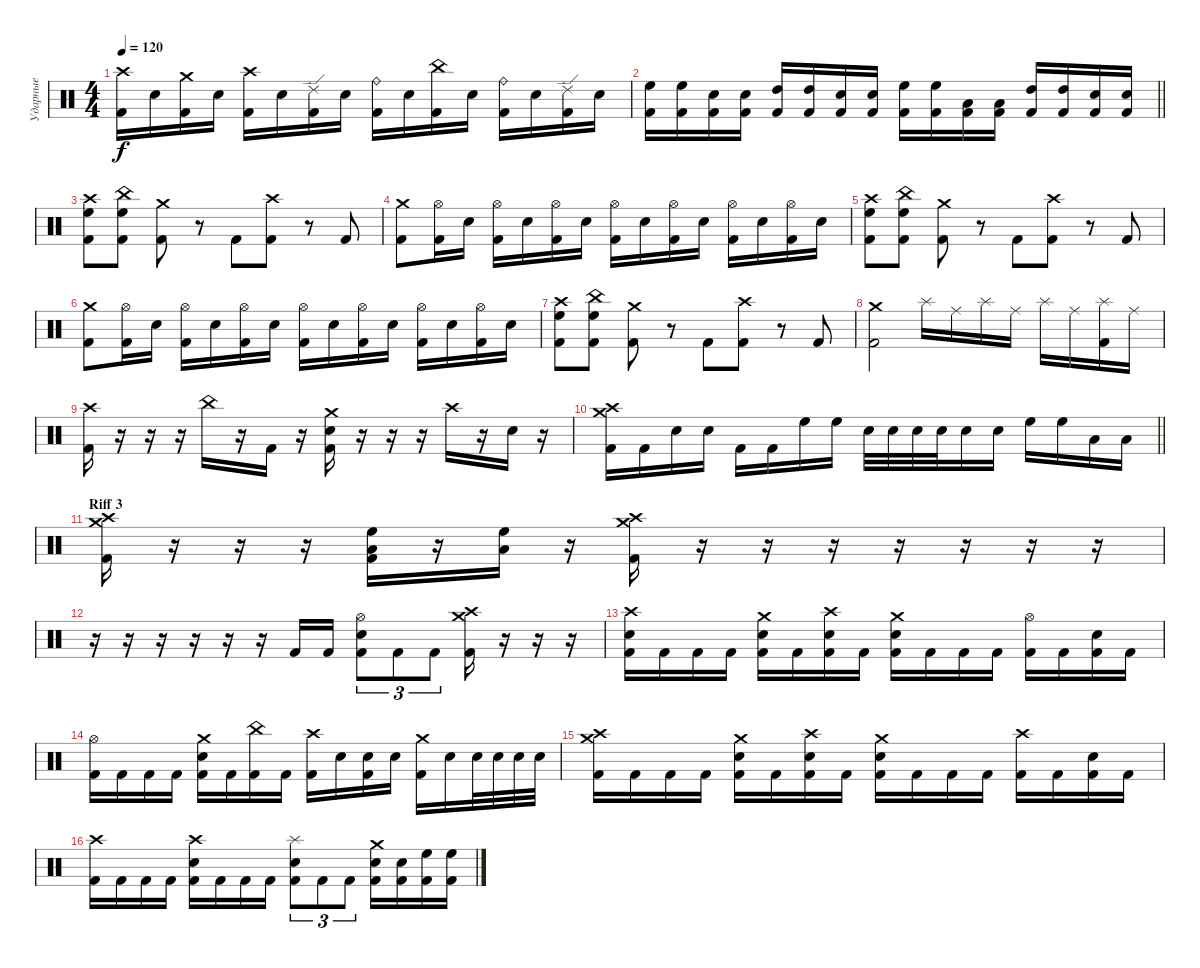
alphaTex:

\track ("Ударные" "Ударные") {instrument percussion}
\staff {score}
\articulation defaults
\ts (4 4)
\tempo 120
\clef neutral
\ks c
("Crash high (hit)" "Kick (hit) 2").16{dy f} "Electric Snare (hit)".16 ("Crash medium (hit)" "Kick (hit) 2").16 "Electric Snare (hit)".16 ("Crash high (hit)" "Kick (hit) 2").16 "Electric Snare (hit)".16 ("Ride (edge) 2" "Kick (hit) 2").16 "Electric Snare (hit)".16 ("Ride (bell)" "Kick (hit) 2").16 "Electric Snare (hit)".16 ("China (hit)" "Kick (hit) 2").16 "Electric Snare (hit)".16 ("Ride (bell)" "Kick (hit) 2").16 "Electric Snare (hit)".16 ("Ride (edge) 2" "Kick (hit) 2").16 "Electric Snare (hit)".16 |
\barLineRight lightlight
("High Floor Tom (hit)" "Kick (hit) 2").16 ("High Floor Tom (hit)" "Kick (hit) 2").16 ("Electric Snare (hit)" "Kick (hit) 2").16 ("Electric Snare (hit)" "Kick (hit) 2").16 ("High Tom (hit)" "Kick (hit) 2").16 ("High Tom (hit)" "Kick (hit) 2").16 ("Electric Snare (hit)" "Kick (hit) 2").16 ("Electric Snare (hit)" "Kick (hit) 2").16 ("High Floor Tom (hit)" "Kick (hit) 2").16 ("High Floor Tom (hit)" "Kick (hit) 2").16 ("Low Tom (hit)" "Kick (hit) 2").16 ("Low Tom (hit)" "Kick (hit) 2").16 ("High Tom (hit)" "Kick (hit) 2").16 ("High Tom (hit)" "Kick (hit) 2").16 ("Electric Snare (hit)" "Kick (hit) 2").16 ("Electric Snare (hit)" "Kick (hit) 2").16 |
("Crash high (hit)" "High Floor Tom (hit)" "Kick (hit) 2").8 ("China (hit)" "High Floor Tom (hit)" "Kick (hit) 2").8 ("Crash medium (hit)" "Kick (hit) 2").8 r.8 "Kick (hit) 2".8 ("Crash high (hit)" "Kick (hit) 2").8 r.8 "Kick (hit) 2".8 |
("Crash medium (hit)" "Kick (hit) 2").8 ("Hi-Hat (open)" "Kick (hit) 2").16 "Electric Snare (hit)".16 ("Hi-Hat (open)" "Kick (hit) 2").16 "Electric Snare (hit)".16 ("Hi-Hat (open)" "Kick (hit) 2").16 "Electric Snare (hit)".16 ("Hi-Hat (open)" "Kick (hit) 2").16 "Electric Snare (hit)".16 ("Hi-Hat (open)" "Kick (hit) 2").16 "Electric Snare (hit)".16 ("Hi-Hat (open)" "Kick (hit) 2").16 "Electric Snare (hit)".16 ("Hi-Hat (open)" "Kick (hit) 2").16 "Electric Snare (hit)".16 |
("Crash high (hit)" "High Floor Tom (hit)" "Kick (hit) 2").8 ("China (hit)" "High Floor Tom (hit)" "Kick (hit) 2").8 ("Crash medium (hit)" "Kick (hit) 2").8 r.8 "Kick (hit) 2".8 ("Crash high (hit)" "Kick (hit) 2").8 r.8 "Kick (hit) 2".8 |
("Crash medium (hit)" "Kick (hit) 2").8 ("Hi-Hat (open)" "Kick (hit) 2").16 "Electric Snare (hit)".16 ("Hi-Hat (open)" "Kick (hit) 2").16 "Electric Snare (hit)".16 ("Hi-Hat (open)" "Kick (hit) 2").16 "Electric Snare (hit)".16 ("Hi-Hat (open)" "Kick (hit) 2").16 "Electric Snare (hit)".16 ("Hi-Hat (open)" "Kick (hit) 2").16 "Electric Snare (hit)".16 ("Hi-Hat (open)" "Kick (hit) 2").16 "Electric Snare (hit)".16 ("Hi-Hat (open)" "Kick (hit) 2").16 "Electric Snare (hit)".16 |
("Crash high (hit)" "High Floor Tom (hit)" "Kick (hit) 2").8 ("China (hit)" "High Floor Tom (hit)" "Kick (hit) 2").8 ("Crash medium (hit)" "Kick (hit) 2").8 r.8 "Kick (hit) 2".8 ("Crash high (hit)" "Kick (hit) 2").8 r.8 "Kick (hit) 2".8 |
("Crash medium (hit)" "Kick (hit) 2").2 "Splash (hit)".16 "Ride (middle)".16 "Splash (hit)".16 "Ride (middle)".16 "Splash (hit)".16 "Ride (middle)".16 ("Splash (hit)" "Kick (hit) 2").16 "Ride (middle)".16 |
("Crash high (hit)" "Kick (hit) 2").16 r.16 r.16 r.16 "China (hit)".16 r.16 "Kick (hit) 2".16 r.16 ("Crash medium (hit)" "Electric Snare (hit)" "Kick (hit) 2").16 r.16 r.16 r.16 "Crash high (hit)".16 r.16 "Electric Snare (hit)".16 r.16 |
\barLineRight lightlight
("Crash medium (hit)" "Crash high (hit)" "Kick (hit) 2").16 "Kick (hit) 2".16 "Electric Snare (hit)".16 "Electric Snare (hit)".16 "Kick (hit) 2".16 "Kick (hit) 2".16 "High Floor Tom (hit)".16 "High Floor Tom (hit)".16 "Electric Snare (hit)".32 "Electric Snare (hit)".32 "Electric Snare (hit)".32 "Electric Snare (hit)".32 "Electric Snare (hit)".16 "Electric Snare (hit)".16 "High Floor Tom (hit)".16 "High Floor Tom (hit)".16 "Low Tom (hit)".16 "Low Tom (hit)".16 |
\section ("" "Riff 3")
("Crash medium (hit)" "Crash high (hit)" "Kick (hit) 2").16 r.16 r.16 r.16 ("High Floor Tom (hit)" "Low Tom (hit)" "Kick (hit) 2").16 r.16 ("High Floor Tom (hit)" "Low Tom (hit)").16 r.16 ("Crash medium (hit)" "Crash high (hit)" "Kick (hit) 2").16 r.16 r.16 r.16 r.16 r.16 r.16 r.16 |
r.16 r.16 r.16 r.16 r.16 r.16 "Kick (hit) 2".16 "Kick (hit) 2".16 ("Hi-Hat (open)" "Electric Snare (hit)" "Kick (hit) 2").8{tu (3 2)} "Kick (hit) 2".8{tu (3 2)} "Kick (hit) 2".8{tu (3 2)} ("Crash high (hit)" "Crash medium (hit)" "Kick (hit) 2").16 r.16 r.16 r.16 |
("Crash high (hit)" "Electric Snare (hit)" "Kick (hit) 2").16 "Kick (hit) 2".16 "Kick (hit) 2".16 "Kick (hit) 2".16 ("Crash medium (hit)" "Electric Snare (hit)" "Kick (hit) 2").16 "Kick (hit) 2".16 ("Crash high (hit)" "Electric Snare (hit)" "Kick (hit) 2").16 "Kick (hit) 2".16 ("Crash medium (hit)" "Electric Snare (hit)" "Kick (hit) 2").16 "Kick (hit) 2".16 "Kick (hit) 2".16 "Kick (hit) 2".16 ("Hi-Hat (open)" "Kick (hit) 2").16 "Kick (hit) 2".16 ("Electric Snare (hit)" "Kick (hit) 2").16 "Kick (hit) 2".16 |
("Hi-Hat (open)" "Kick (hit) 2").16 "Kick (hit) 2".16 "Kick (hit) 2".16 "Kick (hit) 2".16 ("Crash medium (hit)" "Electric Snare (hit)" "Kick (hit) 2").16 "Kick (hit) 2".16 ("China (hit)" "Kick (hit) 2").16 "Kick (hit) 2".16 ("Crash high (hit)" "Kick (hit) 2").16 "Electric Snare (hit)".16 ("Electric Snare (hit)" "Kick (hit) 2").16 "Electric Snare (hit)".16 ("Crash medium (hit)" "Kick (hit) 2").16 "Electric Snare (hit)".16 "Electric Snare (hit)".32 "Electric Snare (hit)".32 "Electric Snare (hit)".32 "Electric Snare (hit)".32 |
("Crash high (hit)" "Crash medium (hit)" "Kick (hit) 2").16 "Kick (hit) 2".16 "Kick (hit) 2".16 "Kick (hit) 2".16 ("Crash medium (hit)" "Electric Snare (hit)" "Kick (hit) 2").16 "Kick (hit) 2".16 ("Crash high (hit)" "Electric Snare (hit)" "Kick (hit) 2").16 "Kick (hit) 2".16 ("Crash medium (hit)" "Electric Snare (hit)" "Kick (hit) 2").16 "Kick (hit) 2".16 "Kick (hit) 2".16 "Kick (hit) 2".16 ("Crash high (hit)" "Kick (hit) 2").16 "Kick (hit) 2".16 ("Electric Snare (hit)" "Kick (hit) 2").16 "Kick (hit) 2".16 |
("Crash high (hit)" "Kick (hit) 2").16 "Kick (hit) 2".16 "Kick (hit) 2".16 "Kick (hit) 2".16 ("Crash high (hit)" "Electric Snare (hit)" "Kick (hit) 2").16 "Kick (hit) 2".16 "Kick (hit) 2".16 "Kick (hit) 2".16 ("Splash (hit)" "Electric Snare (hit)" "Kick (hit) 2").8{tu (3 2)} "Kick (hit) 2".8{tu (3 2)} "Kick (hit) 2".8{tu (3 2)} ("Crash medium (hit)" "Electric Snare (hit)" "Kick (hit) 2").16 ("Electric Snare (hit)" "Kick (hit) 2").16 ("High Floor Tom (hit)" "Kick (hit) 2").16 ("High Floor Tom (hit)" "Kick (hit) 2").16
